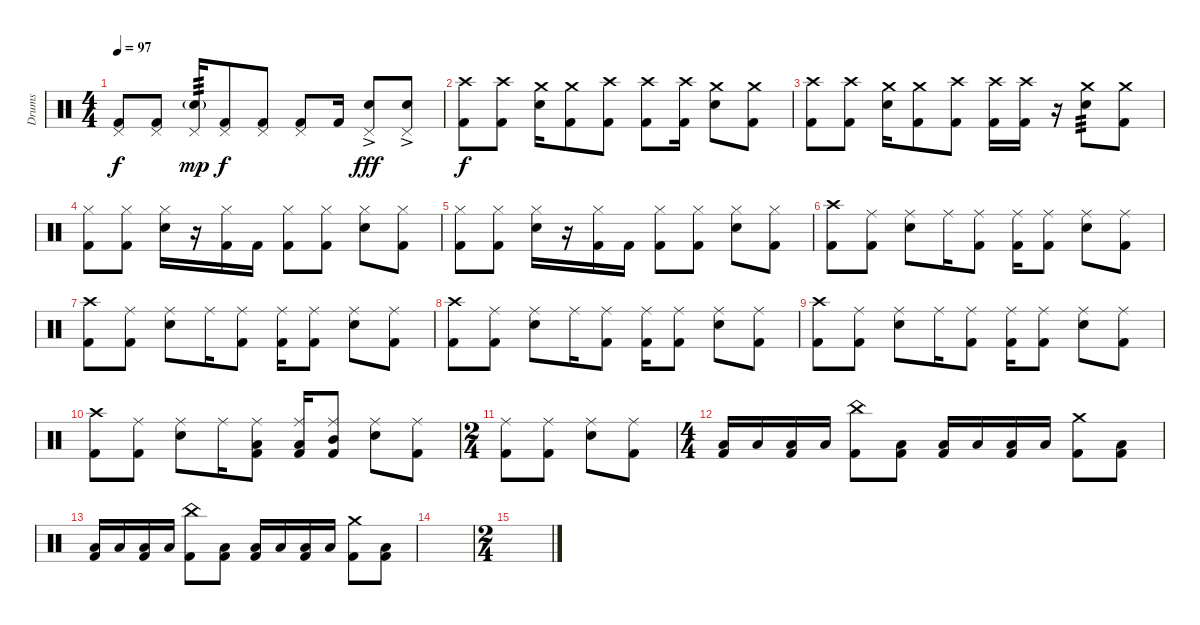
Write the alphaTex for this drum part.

\track ("Drums" "Drums") {instrument percussion}
\staff {score}
\articulation defaults
\ts (4 4)
\tempo 97
\clef neutral
\ks c
("Pedal Hi-Hat (hit)" "Kick (hit) 2").8{dy f} ("Pedal Hi-Hat (hit)" "Kick (hit) 2").8 ("Pedal Hi-Hat (hit)" "Snare (hit) 2"{g}).16{tp 3 dy mp} ("Pedal Hi-Hat (hit)" "Kick (hit) 2").8{dy f} ("Pedal Hi-Hat (hit)" "Kick (hit) 2").8 ("Pedal Hi-Hat (hit)" "Kick (hit) 2").8 "Kick (hit) 2".16 ("Pedal Hi-Hat (hit)" "Snare (hit) 2"{ac}).8{dy fff} ("Pedal Hi-Hat (hit)" "Snare (hit) 2"{ac}).8 |
("Crash high (hit)" "Kick (hit) 2").8{dy f volume 16} ("Crash high (hit)" "Kick (hit) 2").8 ("Crash medium (hit)" "Snare (hit) 2").16 ("Crash medium (hit)" "Kick (hit) 2").8 ("Crash high (hit)" "Kick (hit) 2").8 ("Crash high (hit)" "Kick (hit) 2").8 ("Crash high (hit)" "Kick (hit) 2").16 ("Crash medium (hit)" "Snare (hit) 2").8 ("Crash medium (hit)" "Kick (hit) 2").8 |
("Crash high (hit)" "Kick (hit) 2").8 ("Crash high (hit)" "Kick (hit) 2").8 ("Crash medium (hit)" "Snare (hit) 2").16 ("Crash medium (hit)" "Kick (hit) 2").8 ("Crash high (hit)" "Kick (hit) 2").8 ("Crash high (hit)" "Kick (hit) 2").16 ("Crash high (hit)" "Kick (hit) 2").16 r.16 ("Crash medium (hit)" "Snare (hit) 2").8{tp 3} ("Crash medium (hit)" "Kick (hit) 2").8 |
("Hi-Hat (closed)" "Kick (hit) 2").8 ("Hi-Hat (closed)" "Kick (hit) 2").8 ("Hi-Hat (closed)" "Snare (hit) 2").16 r.16 ("Hi-Hat (closed)" "Kick (hit) 2").16 "Kick (hit) 2".16 ("Hi-Hat (closed)" "Kick (hit) 2").8 ("Hi-Hat (closed)" "Kick (hit) 2").8 ("Hi-Hat (closed)" "Snare (hit) 2").8 ("Hi-Hat (closed)" "Kick (hit) 2").8 |
("Hi-Hat (closed)" "Kick (hit) 2").8 ("Hi-Hat (closed)" "Kick (hit) 2").8 ("Hi-Hat (closed)" "Snare (hit) 2").16 r.16 ("Hi-Hat (closed)" "Kick (hit) 2").16 "Kick (hit) 2".16 ("Hi-Hat (closed)" "Kick (hit) 2").8 ("Hi-Hat (closed)" "Kick (hit) 2").8 ("Hi-Hat (closed)" "Snare (hit) 2").8 ("Hi-Hat (closed)" "Kick (hit) 2").8 |
("Crash high (hit)" "Kick (hit) 2").8 ("Ride (middle)" "Kick (hit) 2").8 ("Ride (middle)" "Snare (hit) 2").8 "Ride (middle)".16 ("Ride (middle)" "Kick (hit) 2").8 ("Ride (middle)" "Kick (hit) 2").16 ("Ride (middle)" "Kick (hit) 2").8 ("Ride (middle)" "Snare (hit) 2").8 ("Ride (middle)" "Kick (hit) 2").8 |
("Crash high (hit)" "Kick (hit) 2").8 ("Ride (middle)" "Kick (hit) 2").8 ("Ride (middle)" "Snare (hit) 2").8 "Ride (middle)".16 ("Ride (middle)" "Kick (hit) 2").8 ("Ride (middle)" "Kick (hit) 2").16 ("Ride (middle)" "Kick (hit) 2").8 ("Ride (middle)" "Snare (hit) 2").8 ("Ride (middle)" "Kick (hit) 2").8 |
("Crash high (hit)" "Kick (hit) 2").8 ("Ride (middle)" "Kick (hit) 2").8 ("Ride (middle)" "Snare (hit) 2").8 "Ride (middle)".16 ("Ride (middle)" "Kick (hit) 2").8 ("Ride (middle)" "Kick (hit) 2").16 ("Ride (middle)" "Kick (hit) 2").8 ("Ride (middle)" "Snare (hit) 2").8 ("Ride (middle)" "Kick (hit) 2").8 |
("Crash high (hit)" "Kick (hit) 2").8 ("Ride (middle)" "Kick (hit) 2").8 ("Ride (middle)" "Snare (hit) 2").8 "Ride (middle)".16 ("Ride (middle)" "Kick (hit) 2").8 ("Ride (middle)" "Kick (hit) 2").16 ("Ride (middle)" "Kick (hit) 2").8 ("Ride (middle)" "Snare (hit) 2").8 ("Ride (middle)" "Kick (hit) 2").8 |
("Crash high (hit)" "Kick (hit) 2").8 ("Ride (middle)" "Kick (hit) 2").8 ("Ride (middle)" "Snare (hit) 2").8 "Ride (middle)".16 ("Ride (middle)" "Low Tom (hit)" "Kick (hit) 2").8 ("Ride (middle)" "Low Tom (hit)" "Kick (hit) 2").16 ("Ride (middle)" "Mid Tom (hit)" "Kick (hit) 2").8 ("Ride (middle)" "Snare (hit) 2").8 ("Ride (middle)" "Kick (hit) 2").8 |
\ts (2 4)
("Ride (middle)" "Kick (hit) 2").8 ("Ride (middle)" "Kick (hit) 2").8 ("Ride (middle)" "Snare (hit) 2").8 ("Ride (middle)" "Kick (hit) 2").8 |
\ts (4 4)
("Low Tom (hit)" "Kick (hit) 2").16 "Low Tom (hit)".16 ("Low Tom (hit)" "Kick (hit) 2").16 "Low Tom (hit)".16 ("China (hit)" "Kick (hit) 2").8 ("Low Tom (hit)" "Kick (hit) 2").8 ("Low Tom (hit)" "Kick (hit) 2").16 "Low Tom (hit)".16 ("Low Tom (hit)" "Kick (hit) 2").16 "Low Tom (hit)".16 ("Crash medium (hit)" "Kick (hit) 2").8 ("Low Tom (hit)" "Kick (hit) 2").8 |
("Low Tom (hit)" "Kick (hit) 2").16 "Low Tom (hit)".16 ("Low Tom (hit)" "Kick (hit) 2").16 "Low Tom (hit)".16 ("China (hit)" "Kick (hit) 2").8 ("Low Tom (hit)" "Kick (hit) 2").8 ("Low Tom (hit)" "Kick (hit) 2").16 "Low Tom (hit)".16 ("Low Tom (hit)" "Kick (hit) 2").16 "Low Tom (hit)".16 ("Crash medium (hit)" "Kick (hit) 2").8 ("Low Tom (hit)" "Kick (hit) 2").8 |
|
\ts (2 4)
